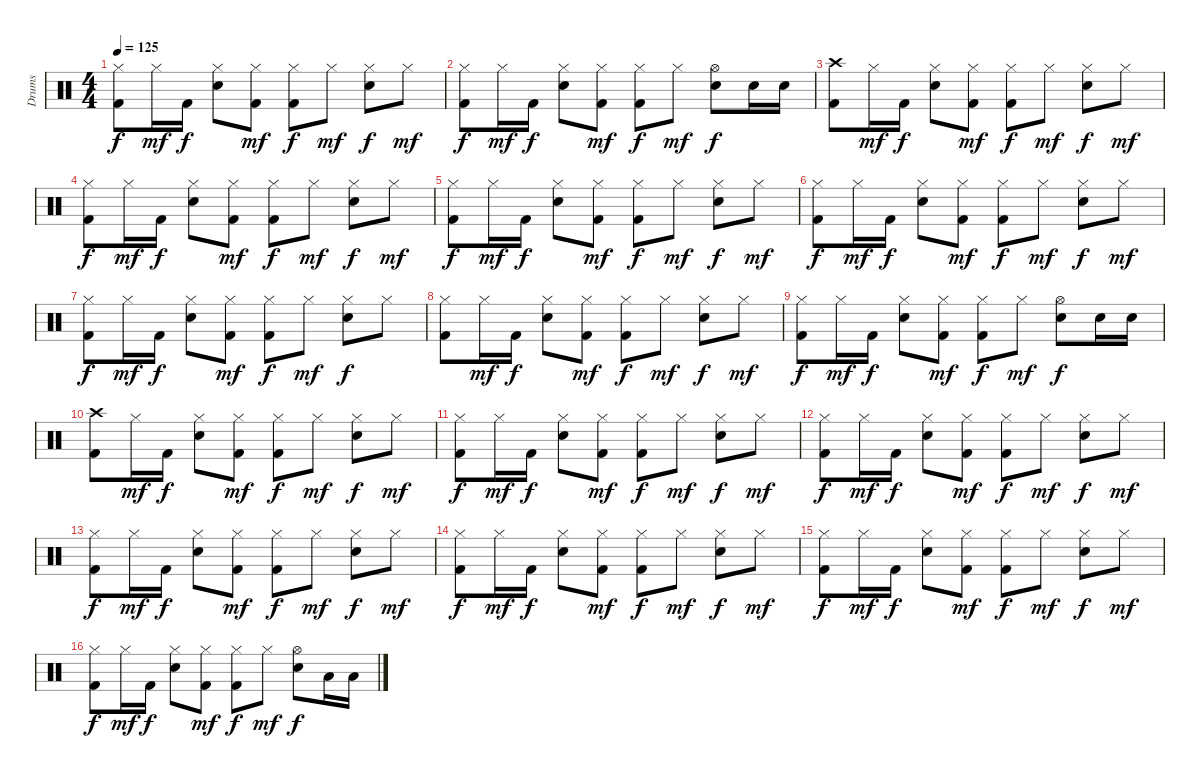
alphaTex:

\track ("Drums" "Drums") {instrument percussion}
\staff {score}
\articulation defaults
\ts (4 4)
\tempo 125
\clef neutral
\ks c
("Hi-Hat (closed)" "Kick (hit) 2").8{dy f} "Hi-Hat (closed)".16{dy mf} "Kick (hit) 2".16{dy f} ("Hi-Hat (closed)" "Electric Snare (hit)").8 ("Hi-Hat (closed)" "Kick (hit) 2").8{dy mf} ("Hi-Hat (closed)" "Kick (hit) 2").8{dy f} "Hi-Hat (closed)".8{dy mf} ("Hi-Hat (closed)" "Electric Snare (hit)").8{dy f} "Hi-Hat (closed)".8{dy mf} |
("Hi-Hat (closed)" "Kick (hit) 2").8{dy f} "Hi-Hat (closed)".16{dy mf} "Kick (hit) 2".16{dy f} ("Hi-Hat (closed)" "Electric Snare (hit)").8 ("Hi-Hat (closed)" "Kick (hit) 2").8{dy mf} ("Hi-Hat (closed)" "Kick (hit) 2").8{dy f} "Hi-Hat (closed)".8{dy mf} ("Hi-Hat (open)" "Electric Snare (hit)").8{dy f} "Electric Snare (hit)".16 "Electric Snare (hit)".16 |
("Crash high (hit)" "Kick (hit) 2").8 "Hi-Hat (closed)".16{dy mf} "Kick (hit) 2".16{dy f} ("Hi-Hat (closed)" "Electric Snare (hit)").8 ("Hi-Hat (closed)" "Kick (hit) 2").8{dy mf} ("Hi-Hat (closed)" "Kick (hit) 2").8{dy f} "Hi-Hat (closed)".8{dy mf} ("Hi-Hat (closed)" "Electric Snare (hit)").8{dy f} "Hi-Hat (closed)".8{dy mf} |
("Hi-Hat (closed)" "Kick (hit) 2").8{dy f} "Hi-Hat (closed)".16{dy mf} "Kick (hit) 2".16{dy f} ("Hi-Hat (closed)" "Electric Snare (hit)").8 ("Hi-Hat (closed)" "Kick (hit) 2").8{dy mf} ("Hi-Hat (closed)" "Kick (hit) 2").8{dy f} "Hi-Hat (closed)".8{dy mf} ("Hi-Hat (closed)" "Electric Snare (hit)").8{dy f} "Hi-Hat (closed)".8{dy mf} |
("Hi-Hat (closed)" "Kick (hit) 2").8{dy f} "Hi-Hat (closed)".16{dy mf} "Kick (hit) 2".16{dy f} ("Hi-Hat (closed)" "Electric Snare (hit)").8 ("Hi-Hat (closed)" "Kick (hit) 2").8{dy mf} ("Hi-Hat (closed)" "Kick (hit) 2").8{dy f} "Hi-Hat (closed)".8{dy mf} ("Hi-Hat (closed)" "Electric Snare (hit)").8{dy f} "Hi-Hat (closed)".8{dy mf} |
("Hi-Hat (closed)" "Kick (hit) 2").8{dy f} "Hi-Hat (closed)".16{dy mf} "Kick (hit) 2".16{dy f} ("Hi-Hat (closed)" "Electric Snare (hit)").8 ("Hi-Hat (closed)" "Kick (hit) 2").8{dy mf} ("Hi-Hat (closed)" "Kick (hit) 2").8{dy f} "Hi-Hat (closed)".8{dy mf} ("Hi-Hat (closed)" "Electric Snare (hit)").8{dy f} "Hi-Hat (closed)".8{dy mf} |
("Hi-Hat (closed)" "Kick (hit) 2").8{dy f} "Hi-Hat (closed)".16{dy mf} "Kick (hit) 2".16{dy f} ("Hi-Hat (closed)" "Electric Snare (hit)").8 ("Hi-Hat (closed)" "Kick (hit) 2").8{dy mf} ("Hi-Hat (closed)" "Kick (hit) 2").8{dy f} "Hi-Hat (closed)".8{dy mf} ("Hi-Hat (closed)" "Electric Snare (hit)").8{dy f} "Hi-Hat (closed)".8 |
("Hi-Hat (closed)" "Kick (hit) 2").8 "Hi-Hat (closed)".16{dy mf} "Kick (hit) 2".16{dy f} ("Hi-Hat (closed)" "Electric Snare (hit)").8 ("Hi-Hat (closed)" "Kick (hit) 2").8{dy mf} ("Hi-Hat (closed)" "Kick (hit) 2").8{dy f} "Hi-Hat (closed)".8{dy mf} ("Hi-Hat (closed)" "Electric Snare (hit)").8{dy f} "Hi-Hat (closed)".8{dy mf} |
("Hi-Hat (closed)" "Kick (hit) 2").8{dy f} "Hi-Hat (closed)".16{dy mf} "Kick (hit) 2".16{dy f} ("Hi-Hat (closed)" "Electric Snare (hit)").8 ("Hi-Hat (closed)" "Kick (hit) 2").8{dy mf} ("Hi-Hat (closed)" "Kick (hit) 2").8{dy f} "Hi-Hat (closed)".8{dy mf} ("Hi-Hat (open)" "Electric Snare (hit)").8{dy f} "Electric Snare (hit)".16 "Electric Snare (hit)".16 |
("Crash high (hit)" "Kick (hit) 2").8 "Hi-Hat (closed)".16{dy mf} "Kick (hit) 2".16{dy f} ("Hi-Hat (closed)" "Electric Snare (hit)").8 ("Hi-Hat (closed)" "Kick (hit) 2").8{dy mf} ("Hi-Hat (closed)" "Kick (hit) 2").8{dy f} "Hi-Hat (closed)".8{dy mf} ("Hi-Hat (closed)" "Electric Snare (hit)").8{dy f} "Hi-Hat (closed)".8{dy mf} |
("Hi-Hat (closed)" "Kick (hit) 2").8{dy f} "Hi-Hat (closed)".16{dy mf} "Kick (hit) 2".16{dy f} ("Hi-Hat (closed)" "Electric Snare (hit)").8 ("Hi-Hat (closed)" "Kick (hit) 2").8{dy mf} ("Hi-Hat (closed)" "Kick (hit) 2").8{dy f} "Hi-Hat (closed)".8{dy mf} ("Hi-Hat (closed)" "Electric Snare (hit)").8{dy f} "Hi-Hat (closed)".8{dy mf} |
("Hi-Hat (closed)" "Kick (hit) 2").8{dy f} "Hi-Hat (closed)".16{dy mf} "Kick (hit) 2".16{dy f} ("Hi-Hat (closed)" "Electric Snare (hit)").8 ("Hi-Hat (closed)" "Kick (hit) 2").8{dy mf} ("Hi-Hat (closed)" "Kick (hit) 2").8{dy f} "Hi-Hat (closed)".8{dy mf} ("Hi-Hat (closed)" "Electric Snare (hit)").8{dy f} "Hi-Hat (closed)".8{dy mf} |
("Hi-Hat (closed)" "Kick (hit) 2").8{dy f} "Hi-Hat (closed)".16{dy mf} "Kick (hit) 2".16{dy f} ("Hi-Hat (closed)" "Electric Snare (hit)").8 ("Hi-Hat (closed)" "Kick (hit) 2").8{dy mf} ("Hi-Hat (closed)" "Kick (hit) 2").8{dy f} "Hi-Hat (closed)".8{dy mf} ("Hi-Hat (closed)" "Electric Snare (hit)").8{dy f} "Hi-Hat (closed)".8{dy mf} |
("Hi-Hat (closed)" "Kick (hit) 2").8{dy f} "Hi-Hat (closed)".16{dy mf} "Kick (hit) 2".16{dy f} ("Hi-Hat (closed)" "Electric Snare (hit)").8 ("Hi-Hat (closed)" "Kick (hit) 2").8{dy mf} ("Hi-Hat (closed)" "Kick (hit) 2").8{dy f} "Hi-Hat (closed)".8{dy mf} ("Hi-Hat (closed)" "Electric Snare (hit)").8{dy f} "Hi-Hat (closed)".8{dy mf} |
("Hi-Hat (closed)" "Kick (hit) 2").8{dy f} "Hi-Hat (closed)".16{dy mf} "Kick (hit) 2".16{dy f} ("Hi-Hat (closed)" "Electric Snare (hit)").8 ("Hi-Hat (closed)" "Kick (hit) 2").8{dy mf} ("Hi-Hat (closed)" "Kick (hit) 2").8{dy f} "Hi-Hat (closed)".8{dy mf} ("Hi-Hat (closed)" "Electric Snare (hit)").8{dy f} "Hi-Hat (closed)".8{dy mf} |
("Hi-Hat (closed)" "Kick (hit) 2").8{dy f} "Hi-Hat (closed)".16{dy mf} "Kick (hit) 2".16{dy f} ("Hi-Hat (closed)" "Electric Snare (hit)").8 ("Hi-Hat (closed)" "Kick (hit) 2").8{dy mf} ("Hi-Hat (closed)" "Kick (hit) 2").8{dy f} "Hi-Hat (closed)".8{dy mf} ("Hi-Hat (open)" "Electric Snare (hit)").8{dy f} "Low Tom (hit)".16 "Low Tom (hit)".16
